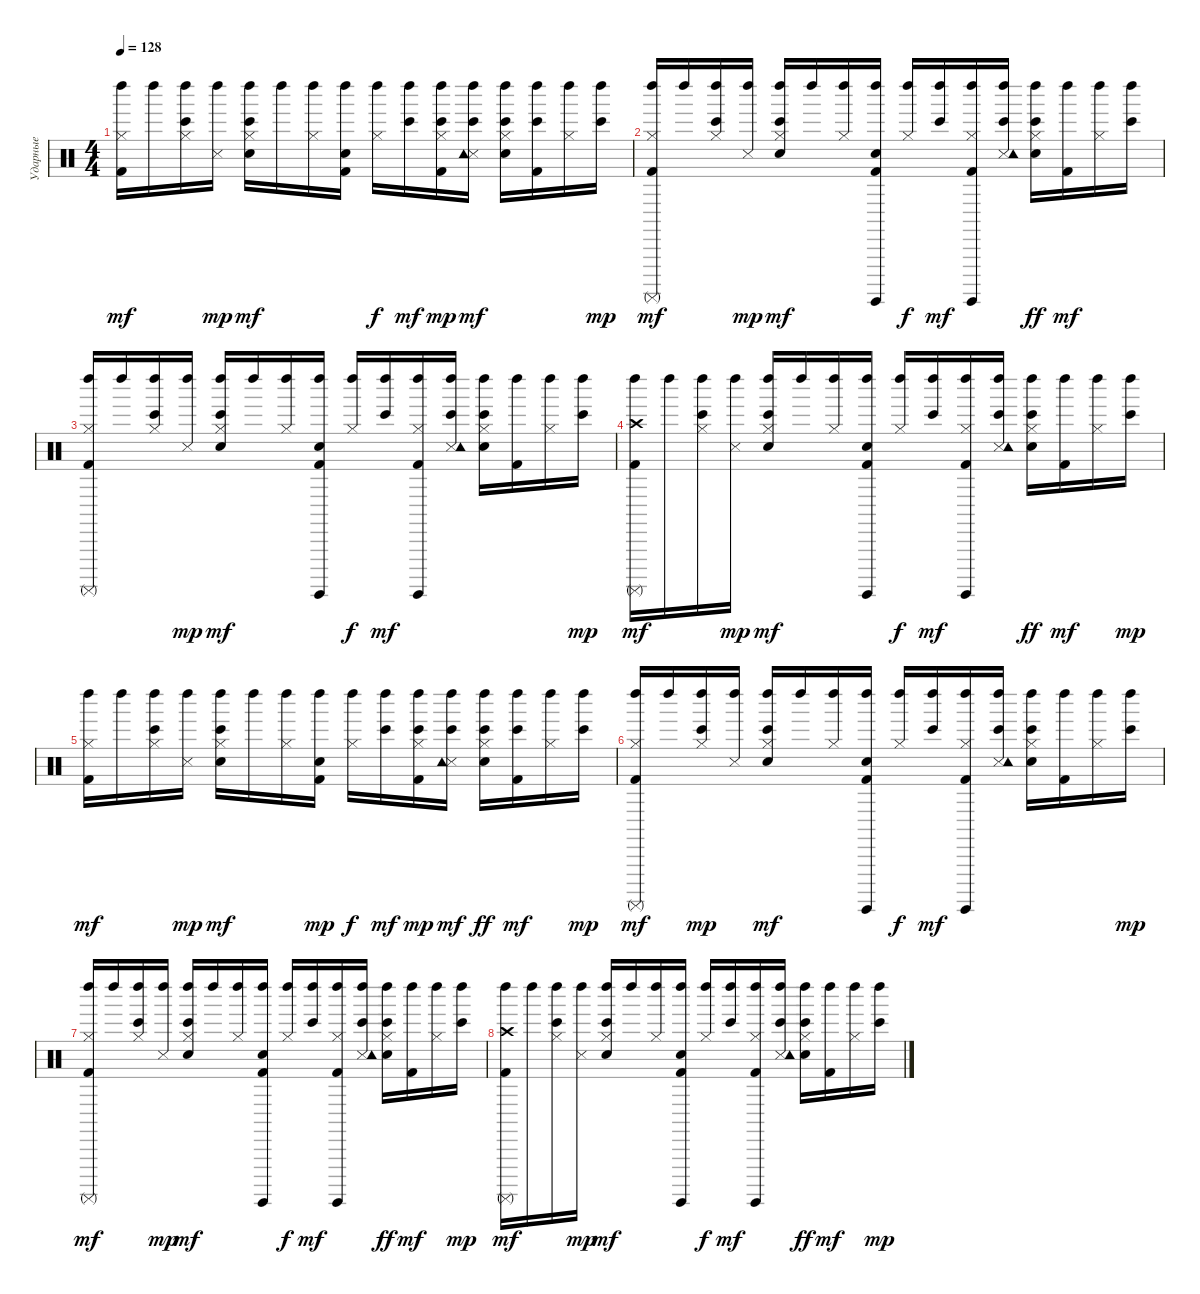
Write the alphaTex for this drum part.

\track ("Ударные" "Ударные") {instrument percussion}
\staff {score}
\articulation defaults
\ts (4 4)
\tempo 128
\clef neutral
\ks c
("Kick (hit) 2" "Hi-Hat (closed)" "Left Maraca (hit)").16{dy mf} "Left Maraca (hit)".16 ("Bongo High (hit)" "Hi-Hat (closed)" "Left Maraca (hit)").16 ("Snare (side stick) 3" "Left Maraca (hit)").16{dy mp} ("Bongo High (hit)" "Electric Snare (hit)" "Hi-Hat (closed)" "Left Maraca (hit)").16{dy mf} "Left Maraca (hit)".16 ("Hi-Hat (closed)" "Left Maraca (hit)").16 ("Kick (hit) 2" "Electric Snare (hit)" "Left Maraca (hit)").16 ("Hi-Hat (closed)" "Left Maraca (hit)").16{dy f} ("Bongo High (hit)" "Left Maraca (hit)").16{dy mf} ("Bongo High (hit)" "Kick (hit) 2" "Hi-Hat (closed)" "Left Maraca (hit)").16{dy mp} ("Bongo High (hit)" "Snare (side stick) 3" "Tambourine (hit)" "Left Maraca (hit)").16{dy mf} ("Bongo High (hit)" "Electric Snare (hit)" "Hi-Hat (closed)" "Left Maraca (hit)").16 ("Bongo High (hit)" "Kick (hit) 2" "Left Maraca (hit)").16 ("Hi-Hat (closed)" "Left Maraca (hit)").16 ("Bongo High (hit)" "Left Maraca (hit)").16{dy mp} |
("Kick (hit) 2" "Hi-Hat (closed)" "Left Maraca (hit)" "Surdo (mute)").16{dy mf} "Left Maraca (hit)".16 ("Bongo High (hit)" "Hi-Hat (closed)" "Left Maraca (hit)").16 ("Snare (side stick) 3" "Left Maraca (hit)").16{dy mp} ("Bongo High (hit)" "Electric Snare (hit)" "Hi-Hat (closed)" "Left Maraca (hit)").16{dy mf} "Left Maraca (hit)".16 ("Hi-Hat (closed)" "Left Maraca (hit)").16 ("Kick (hit) 2" "Electric Snare (hit)" "Left Maraca (hit)" "Surdo (hit)").16 ("Hi-Hat (closed)" "Left Maraca (hit)").16{dy f} ("Bongo High (hit)" "Left Maraca (hit)").16{dy mf} ("Kick (hit) 2" "Hi-Hat (closed)" "Left Maraca (hit)" "Surdo (hit)").16 ("Bongo High (hit)" "Snare (side stick) 3" "Tambourine (hit)" "Left Maraca (hit)").16 ("Bongo High (hit)" "Electric Snare (hit)" "Hi-Hat (closed)" "Left Maraca (hit)").16{dy ff} ("Kick (hit) 2" "Left Maraca (hit)").16{dy mf} ("Hi-Hat (closed)" "Left Maraca (hit)").16 ("Bongo High (hit)" "Left Maraca (hit)").16 |
("Kick (hit) 2" "Hi-Hat (closed)" "Left Maraca (hit)" "Surdo (mute)").16 "Left Maraca (hit)".16 ("Bongo High (hit)" "Hi-Hat (closed)" "Left Maraca (hit)").16 ("Snare (side stick) 3" "Left Maraca (hit)").16{dy mp} ("Bongo High (hit)" "Electric Snare (hit)" "Hi-Hat (closed)" "Left Maraca (hit)").16{dy mf} "Left Maraca (hit)".16 ("Hi-Hat (closed)" "Left Maraca (hit)").16 ("Kick (hit) 2" "Electric Snare (hit)" "Left Maraca (hit)" "Surdo (hit)").16 ("Hi-Hat (closed)" "Left Maraca (hit)").16{dy f} ("Bongo High (hit)" "Left Maraca (hit)").16{dy mf} ("Kick (hit) 2" "Hi-Hat (closed)" "Left Maraca (hit)" "Surdo (hit)").16 ("Bongo High (hit)" "Snare (side stick) 3" "Tambourine (hit)" "Left Maraca (hit)").16 ("Bongo High (hit)" "Electric Snare (hit)" "Hi-Hat (closed)" "Left Maraca (hit)").16 ("Kick (hit) 2" "Left Maraca (hit)").16 ("Hi-Hat (closed)" "Left Maraca (hit)").16 ("Bongo High (hit)" "Left Maraca (hit)").16{dy mp} |
("Kick (hit) 2" "Crash high (hit)" "Left Maraca (hit)" "Surdo (mute)").16{dy mf} "Left Maraca (hit)".16 ("Bongo High (hit)" "Hi-Hat (closed)" "Left Maraca (hit)").16 ("Snare (side stick) 3" "Left Maraca (hit)").16{dy mp} ("Bongo High (hit)" "Electric Snare (hit)" "Hi-Hat (closed)" "Left Maraca (hit)").16{dy mf} "Left Maraca (hit)".16 ("Hi-Hat (closed)" "Left Maraca (hit)").16 ("Kick (hit) 2" "Electric Snare (hit)" "Left Maraca (hit)" "Surdo (hit)").16 ("Hi-Hat (closed)" "Left Maraca (hit)").16{dy f} ("Bongo High (hit)" "Left Maraca (hit)").16{dy mf} ("Kick (hit) 2" "Hi-Hat (closed)" "Left Maraca (hit)" "Surdo (hit)").16 ("Bongo High (hit)" "Snare (side stick) 3" "Tambourine (hit)" "Left Maraca (hit)").16 ("Bongo High (hit)" "Electric Snare (hit)" "Hi-Hat (closed)" "Left Maraca (hit)").16{dy ff} ("Kick (hit) 2" "Left Maraca (hit)").16{dy mf} ("Hi-Hat (closed)" "Left Maraca (hit)").16 ("Bongo High (hit)" "Left Maraca (hit)").16{dy mp} |
("Kick (hit) 2" "Hi-Hat (closed)" "Left Maraca (hit)").16{dy mf} "Left Maraca (hit)".16 ("Bongo High (hit)" "Hi-Hat (closed)" "Left Maraca (hit)").16 ("Snare (side stick) 3" "Left Maraca (hit)").16{dy mp} ("Bongo High (hit)" "Electric Snare (hit)" "Hi-Hat (closed)" "Left Maraca (hit)").16{dy mf} "Left Maraca (hit)".16 ("Hi-Hat (closed)" "Left Maraca (hit)").16 ("Kick (hit) 2" "Electric Snare (hit)" "Left Maraca (hit)").16{dy mp} ("Hi-Hat (closed)" "Left Maraca (hit)").16{dy f} ("Bongo High (hit)" "Left Maraca (hit)").16{dy mf} ("Bongo High (hit)" "Kick (hit) 2" "Hi-Hat (closed)" "Left Maraca (hit)").16{dy mp} ("Bongo High (hit)" "Snare (side stick) 3" "Tambourine (hit)" "Left Maraca (hit)").16{dy mf} ("Bongo High (hit)" "Electric Snare (hit)" "Hi-Hat (closed)" "Left Maraca (hit)").16{dy ff} ("Bongo High (hit)" "Kick (hit) 2" "Left Maraca (hit)").16{dy mf} ("Hi-Hat (closed)" "Left Maraca (hit)").16 ("Bongo High (hit)" "Left Maraca (hit)").16{dy mp} |
("Kick (hit) 2" "Hi-Hat (closed)" "Left Maraca (hit)" "Surdo (mute)").16{dy mf} "Left Maraca (hit)".16 ("Bongo High (hit)" "Hi-Hat (closed)" "Left Maraca (hit)").16{dy mp} ("Snare (side stick) 3" "Left Maraca (hit)").16 ("Bongo High (hit)" "Electric Snare (hit)" "Hi-Hat (closed)" "Left Maraca (hit)").16{dy mf} "Left Maraca (hit)".16 ("Hi-Hat (closed)" "Left Maraca (hit)").16 ("Kick (hit) 2" "Electric Snare (hit)" "Left Maraca (hit)" "Surdo (hit)").16 ("Hi-Hat (closed)" "Left Maraca (hit)").16{dy f} ("Bongo High (hit)" "Left Maraca (hit)").16{dy mf} ("Kick (hit) 2" "Hi-Hat (closed)" "Left Maraca (hit)" "Surdo (hit)").16 ("Bongo High (hit)" "Snare (side stick) 3" "Tambourine (hit)" "Left Maraca (hit)").16 ("Bongo High (hit)" "Electric Snare (hit)" "Hi-Hat (closed)" "Left Maraca (hit)").16 ("Kick (hit) 2" "Left Maraca (hit)").16 ("Hi-Hat (closed)" "Left Maraca (hit)").16 ("Bongo High (hit)" "Left Maraca (hit)").16{dy mp} |
("Kick (hit) 2" "Hi-Hat (closed)" "Left Maraca (hit)" "Surdo (mute)").16{dy mf} "Left Maraca (hit)".16 ("Bongo High (hit)" "Hi-Hat (closed)" "Left Maraca (hit)").16 ("Snare (side stick) 3" "Left Maraca (hit)").16{dy mp} ("Bongo High (hit)" "Electric Snare (hit)" "Hi-Hat (closed)" "Left Maraca (hit)").16{dy mf} "Left Maraca (hit)".16 ("Hi-Hat (closed)" "Left Maraca (hit)").16 ("Kick (hit) 2" "Electric Snare (hit)" "Left Maraca (hit)" "Surdo (hit)").16 ("Hi-Hat (closed)" "Left Maraca (hit)").16{dy f} ("Bongo High (hit)" "Left Maraca (hit)").16{dy mf} ("Kick (hit) 2" "Hi-Hat (closed)" "Left Maraca (hit)" "Surdo (hit)").16 ("Bongo High (hit)" "Snare (side stick) 3" "Tambourine (hit)" "Left Maraca (hit)").16 ("Bongo High (hit)" "Electric Snare (hit)" "Hi-Hat (closed)" "Left Maraca (hit)").16{dy ff} ("Kick (hit) 2" "Left Maraca (hit)").16{dy mf} ("Hi-Hat (closed)" "Left Maraca (hit)").16 ("Bongo High (hit)" "Left Maraca (hit)").16{dy mp} |
("Kick (hit) 2" "Crash high (hit)" "Left Maraca (hit)" "Surdo (mute)").16{dy mf} "Left Maraca (hit)".16 ("Bongo High (hit)" "Hi-Hat (closed)" "Left Maraca (hit)").16 ("Snare (side stick) 3" "Left Maraca (hit)").16{dy mp} ("Bongo High (hit)" "Electric Snare (hit)" "Hi-Hat (closed)" "Left Maraca (hit)").16{dy mf} "Left Maraca (hit)".16 ("Hi-Hat (closed)" "Left Maraca (hit)").16 ("Kick (hit) 2" "Electric Snare (hit)" "Left Maraca (hit)" "Surdo (hit)").16 ("Hi-Hat (closed)" "Left Maraca (hit)").16{dy f} ("Bongo High (hit)" "Left Maraca (hit)").16{dy mf} ("Kick (hit) 2" "Hi-Hat (closed)" "Left Maraca (hit)" "Surdo (hit)").16 ("Bongo High (hit)" "Snare (side stick) 3" "Tambourine (hit)" "Left Maraca (hit)").16 ("Bongo High (hit)" "Electric Snare (hit)" "Hi-Hat (closed)" "Left Maraca (hit)").16{dy ff} ("Kick (hit) 2" "Left Maraca (hit)").16{dy mf} ("Hi-Hat (closed)" "Left Maraca (hit)").16 ("Bongo High (hit)" "Left Maraca (hit)").16{dy mp}
